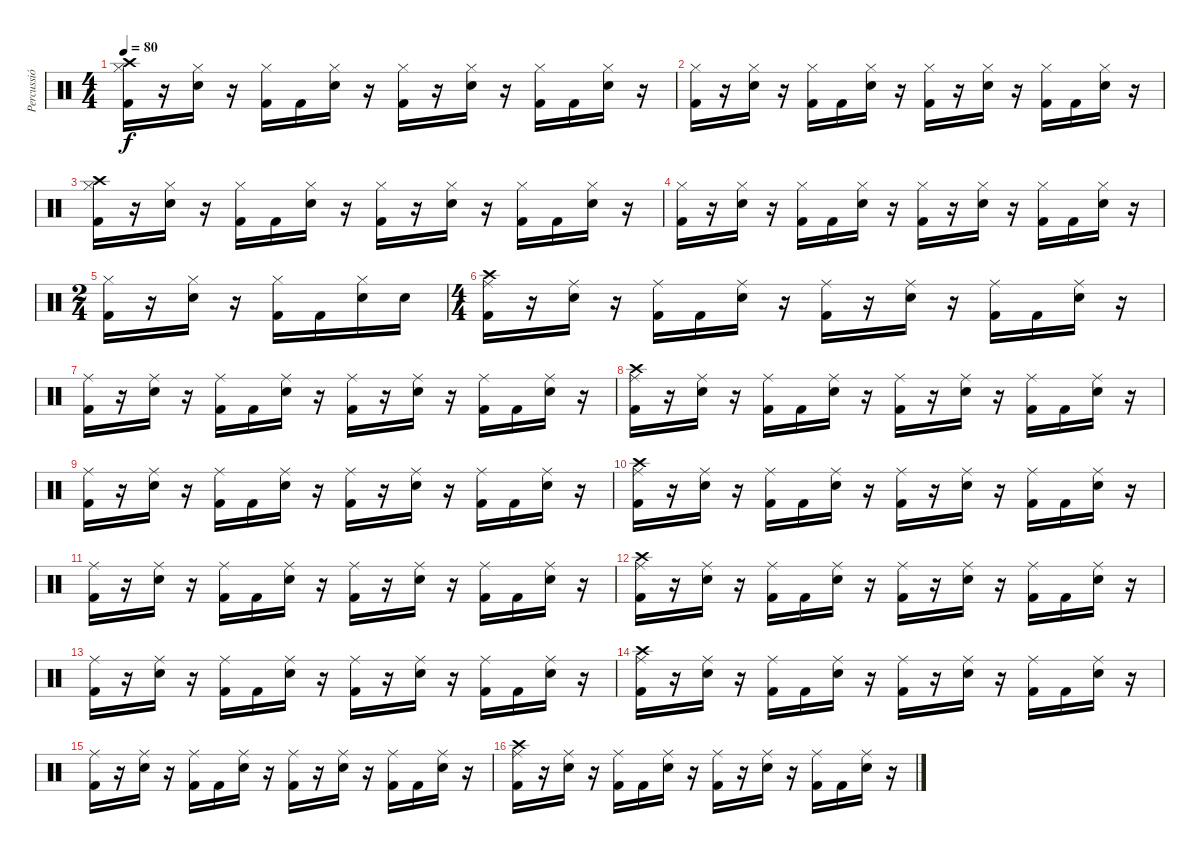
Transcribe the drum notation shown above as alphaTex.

\track ("Percussió" "Percussió") {instrument percussion}
\staff {score}
\articulation defaults
\ts (4 4)
\tempo 80
\clef neutral
\ks c
("Crash high (hit)" "Hi-Hat (closed)" "Kick (hit) 2").16{dy f} r.16 ("Hi-Hat (closed)" "Electric Snare (hit)").16 r.16 ("Hi-Hat (closed)" "Kick (hit) 2").16 "Kick (hit) 2".16 ("Hi-Hat (closed)" "Electric Snare (hit)").16 r.16 ("Hi-Hat (closed)" "Kick (hit) 2").16 r.16 ("Hi-Hat (closed)" "Electric Snare (hit)").16 r.16 ("Hi-Hat (closed)" "Kick (hit) 2").16 "Kick (hit) 2".16 ("Hi-Hat (closed)" "Electric Snare (hit)").16 r.16 |
("Hi-Hat (closed)" "Kick (hit) 2").16 r.16 ("Hi-Hat (closed)" "Electric Snare (hit)").16 r.16 ("Hi-Hat (closed)" "Kick (hit) 2").16 "Kick (hit) 2".16 ("Hi-Hat (closed)" "Electric Snare (hit)").16 r.16 ("Hi-Hat (closed)" "Kick (hit) 2").16 r.16 ("Hi-Hat (closed)" "Electric Snare (hit)").16 r.16 ("Hi-Hat (closed)" "Kick (hit) 2").16 "Kick (hit) 2".16 ("Hi-Hat (closed)" "Electric Snare (hit)").16 r.16 |
("Crash high (hit)" "Hi-Hat (closed)" "Kick (hit) 2").16 r.16 ("Hi-Hat (closed)" "Electric Snare (hit)").16 r.16 ("Hi-Hat (closed)" "Kick (hit) 2").16 "Kick (hit) 2".16 ("Hi-Hat (closed)" "Electric Snare (hit)").16 r.16 ("Hi-Hat (closed)" "Kick (hit) 2").16 r.16 ("Hi-Hat (closed)" "Electric Snare (hit)").16 r.16 ("Hi-Hat (closed)" "Kick (hit) 2").16 "Kick (hit) 2".16 ("Hi-Hat (closed)" "Electric Snare (hit)").16 r.16 |
("Hi-Hat (closed)" "Kick (hit) 2").16 r.16 ("Hi-Hat (closed)" "Electric Snare (hit)").16 r.16 ("Hi-Hat (closed)" "Kick (hit) 2").16 "Kick (hit) 2".16 ("Hi-Hat (closed)" "Electric Snare (hit)").16 r.16 ("Hi-Hat (closed)" "Kick (hit) 2").16 r.16 ("Hi-Hat (closed)" "Electric Snare (hit)").16 r.16 ("Hi-Hat (closed)" "Kick (hit) 2").16 "Kick (hit) 2".16 ("Hi-Hat (closed)" "Electric Snare (hit)").16 r.16 |
\ts (2 4)
("Hi-Hat (closed)" "Kick (hit) 2").16 r.16 ("Hi-Hat (closed)" "Electric Snare (hit)").16 r.16 ("Hi-Hat (closed)" "Kick (hit) 2").16 "Kick (hit) 2".16 ("Hi-Hat (closed)" "Electric Snare (hit)").16 "Electric Snare (hit)".16 |
\ts (4 4)
("Crash high (hit)" "Ride (middle)" "Kick (hit) 2").16 r.16 ("Ride (middle)" "Electric Snare (hit)").16 r.16 ("Ride (middle)" "Kick (hit) 2").16 "Kick (hit) 2".16 ("Ride (middle)" "Electric Snare (hit)").16 r.16 ("Ride (middle)" "Kick (hit) 2").16 r.16 ("Ride (middle)" "Electric Snare (hit)").16 r.16 ("Ride (middle)" "Kick (hit) 2").16 "Kick (hit) 2".16 ("Ride (middle)" "Electric Snare (hit)").16 r.16 |
("Ride (middle)" "Kick (hit) 2").16 r.16 ("Ride (middle)" "Electric Snare (hit)").16 r.16 ("Ride (middle)" "Kick (hit) 2").16 "Kick (hit) 2".16 ("Ride (middle)" "Electric Snare (hit)").16 r.16 ("Ride (middle)" "Kick (hit) 2").16 r.16 ("Ride (middle)" "Electric Snare (hit)").16 r.16 ("Ride (middle)" "Kick (hit) 2").16 "Kick (hit) 2".16 ("Ride (middle)" "Electric Snare (hit)").16 r.16 |
("Crash high (hit)" "Ride (middle)" "Kick (hit) 2").16 r.16 ("Ride (middle)" "Electric Snare (hit)").16 r.16 ("Ride (middle)" "Kick (hit) 2").16 "Kick (hit) 2".16 ("Ride (middle)" "Electric Snare (hit)").16 r.16 ("Ride (middle)" "Kick (hit) 2").16 r.16 ("Ride (middle)" "Electric Snare (hit)").16 r.16 ("Ride (middle)" "Kick (hit) 2").16 "Kick (hit) 2".16 ("Ride (middle)" "Electric Snare (hit)").16 r.16 |
("Ride (middle)" "Kick (hit) 2").16 r.16 ("Ride (middle)" "Electric Snare (hit)").16 r.16 ("Ride (middle)" "Kick (hit) 2").16 "Kick (hit) 2".16 ("Ride (middle)" "Electric Snare (hit)").16 r.16 ("Ride (middle)" "Kick (hit) 2").16 r.16 ("Ride (middle)" "Electric Snare (hit)").16 r.16 ("Ride (middle)" "Kick (hit) 2").16 "Kick (hit) 2".16 ("Ride (middle)" "Electric Snare (hit)").16 r.16 |
("Crash high (hit)" "Ride (middle)" "Kick (hit) 2").16 r.16 ("Ride (middle)" "Electric Snare (hit)").16 r.16 ("Ride (middle)" "Kick (hit) 2").16 "Kick (hit) 2".16 ("Ride (middle)" "Electric Snare (hit)").16 r.16 ("Ride (middle)" "Kick (hit) 2").16 r.16 ("Ride (middle)" "Electric Snare (hit)").16 r.16 ("Ride (middle)" "Kick (hit) 2").16 "Kick (hit) 2".16 ("Ride (middle)" "Electric Snare (hit)").16 r.16 |
("Ride (middle)" "Kick (hit) 2").16 r.16 ("Ride (middle)" "Electric Snare (hit)").16 r.16 ("Ride (middle)" "Kick (hit) 2").16 "Kick (hit) 2".16 ("Ride (middle)" "Electric Snare (hit)").16 r.16 ("Ride (middle)" "Kick (hit) 2").16 r.16 ("Ride (middle)" "Electric Snare (hit)").16 r.16 ("Ride (middle)" "Kick (hit) 2").16 "Kick (hit) 2".16 ("Ride (middle)" "Electric Snare (hit)").16 r.16 |
("Crash high (hit)" "Ride (middle)" "Kick (hit) 2").16 r.16 ("Ride (middle)" "Electric Snare (hit)").16 r.16 ("Ride (middle)" "Kick (hit) 2").16 "Kick (hit) 2".16 ("Ride (middle)" "Electric Snare (hit)").16 r.16 ("Ride (middle)" "Kick (hit) 2").16 r.16 ("Ride (middle)" "Electric Snare (hit)").16 r.16 ("Ride (middle)" "Kick (hit) 2").16 "Kick (hit) 2".16 ("Ride (middle)" "Electric Snare (hit)").16 r.16 |
("Ride (middle)" "Kick (hit) 2").16 r.16 ("Ride (middle)" "Electric Snare (hit)").16 r.16 ("Ride (middle)" "Kick (hit) 2").16 "Kick (hit) 2".16 ("Ride (middle)" "Electric Snare (hit)").16 r.16 ("Ride (middle)" "Kick (hit) 2").16 r.16 ("Ride (middle)" "Electric Snare (hit)").16 r.16 ("Ride (middle)" "Kick (hit) 2").16 "Kick (hit) 2".16 ("Ride (middle)" "Electric Snare (hit)").16 r.16 |
("Crash high (hit)" "Ride (middle)" "Kick (hit) 2").16 r.16 ("Ride (middle)" "Electric Snare (hit)").16 r.16 ("Ride (middle)" "Kick (hit) 2").16 "Kick (hit) 2".16 ("Ride (middle)" "Electric Snare (hit)").16 r.16 ("Ride (middle)" "Kick (hit) 2").16 r.16 ("Ride (middle)" "Electric Snare (hit)").16 r.16 ("Ride (middle)" "Kick (hit) 2").16 "Kick (hit) 2".16 ("Ride (middle)" "Electric Snare (hit)").16 r.16 |
("Ride (middle)" "Kick (hit) 2").16 r.16 ("Ride (middle)" "Electric Snare (hit)").16 r.16 ("Ride (middle)" "Kick (hit) 2").16 "Kick (hit) 2".16 ("Ride (middle)" "Electric Snare (hit)").16 r.16 ("Ride (middle)" "Kick (hit) 2").16 r.16 ("Ride (middle)" "Electric Snare (hit)").16 r.16 ("Ride (middle)" "Kick (hit) 2").16 "Kick (hit) 2".16 ("Ride (middle)" "Electric Snare (hit)").16 r.16 |
("Crash high (hit)" "Ride (middle)" "Kick (hit) 2").16 r.16 ("Ride (middle)" "Electric Snare (hit)").16 r.16 ("Ride (middle)" "Kick (hit) 2").16 "Kick (hit) 2".16 ("Ride (middle)" "Electric Snare (hit)").16 r.16 ("Ride (middle)" "Kick (hit) 2").16 r.16 ("Ride (middle)" "Electric Snare (hit)").16 r.16 ("Ride (middle)" "Kick (hit) 2").16 "Kick (hit) 2".16 ("Ride (middle)" "Electric Snare (hit)").16 r.16
